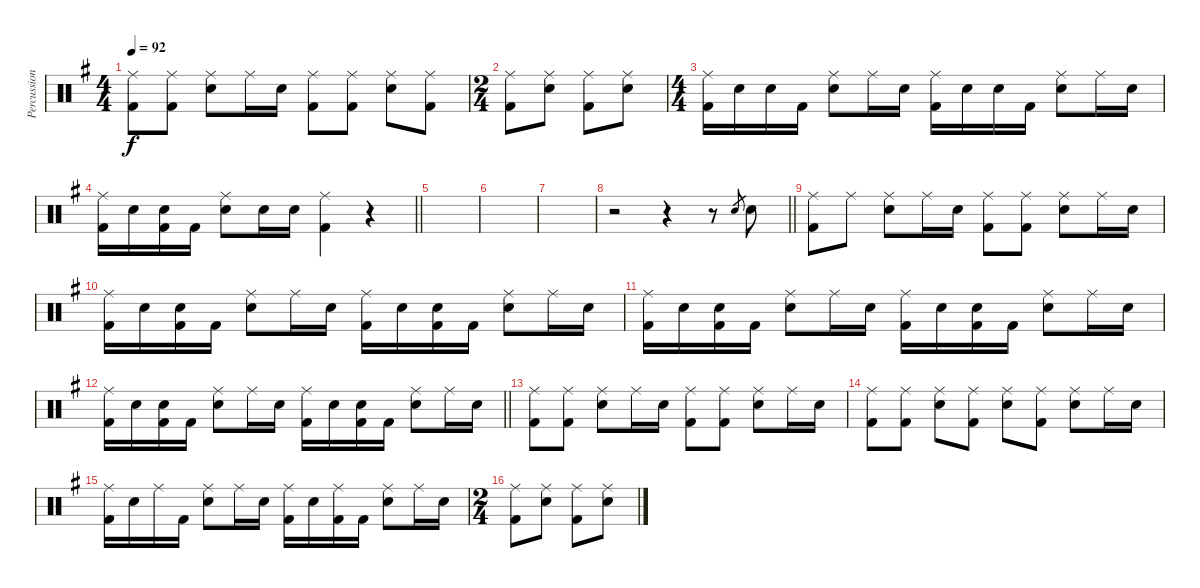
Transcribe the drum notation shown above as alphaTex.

\track ("Percussion" "Percussion") {instrument percussion}
\staff {score}
\articulation defaults
\ts (4 4)
\tempo 92
\clef neutral
\ks g
("Ride (middle)" "Kick (hit) 2").8{dy f} ("Ride (middle)" "Kick (hit) 2").8 ("Ride (middle)" "Snare (hit) 2").8 "Ride (middle)".16 "Snare (hit) 2".16 ("Ride (middle)" "Kick (hit) 2").8 ("Ride (middle)" "Kick (hit) 2").8 ("Ride (middle)" "Snare (hit) 2").8 ("Ride (middle)" "Kick (hit) 2").8 |
\ts (2 4)
("Ride (middle)" "Kick (hit) 2").8 ("Ride (middle)" "Snare (hit) 2").8 ("Ride (middle)" "Kick (hit) 2").8 ("Ride (middle)" "Snare (hit) 2").8 |
\ts (4 4)
("Ride (middle)" "Kick (hit) 2").16 "Snare (hit) 2".16 "Snare (hit) 2".16 "Kick (hit) 2".16 ("Ride (middle)" "Snare (hit) 2").8 "Ride (middle)".16 "Snare (hit) 2".16 ("Ride (middle)" "Kick (hit) 2").16 "Snare (hit) 2".16 "Snare (hit) 2".16 "Kick (hit) 2".16 ("Ride (middle)" "Snare (hit) 2").8 "Ride (middle)".16 "Snare (hit) 2".16 |
\barLineRight lightlight
("Ride (middle)" "Kick (hit) 2").16 "Snare (hit) 2".16 ("Snare (hit) 2" "Kick (hit) 2").16 "Kick (hit) 2".16 ("Ride (middle)" "Snare (hit) 2").8 "Snare (hit) 2".16 "Snare (hit) 2".16 ("Ride (middle)" "Kick (hit) 2").4 r.4 |
|
|
|
\barLineRight lightlight
r.2 r.4 r.8 "Snare (hit) 2".8{gr} "Snare (hit) 2".8 |
("Ride (middle)" "Kick (hit) 2").8 "Ride (middle)".8 ("Ride (middle)" "Snare (hit) 2").8 "Ride (middle)".16 "Snare (hit) 2".16 ("Ride (middle)" "Kick (hit) 2").8 ("Ride (middle)" "Kick (hit) 2").8 ("Ride (middle)" "Snare (hit) 2").8 "Ride (middle)".16 "Snare (hit) 2".16 |
("Ride (middle)" "Kick (hit) 2").16 "Snare (hit) 2".16 ("Snare (hit) 2" "Kick (hit) 2").16 "Kick (hit) 2".16 ("Ride (middle)" "Snare (hit) 2").8 "Ride (middle)".16 "Snare (hit) 2".16 ("Ride (middle)" "Kick (hit) 2").16 "Snare (hit) 2".16 ("Snare (hit) 2" "Kick (hit) 2").16 "Kick (hit) 2".16 ("Ride (middle)" "Snare (hit) 2").8 "Ride (middle)".16 "Snare (hit) 2".16 |
("Ride (middle)" "Kick (hit) 2").16 "Snare (hit) 2".16 ("Snare (hit) 2" "Kick (hit) 2").16 "Kick (hit) 2".16 ("Ride (middle)" "Snare (hit) 2").8 "Ride (middle)".16 "Snare (hit) 2".16 ("Ride (middle)" "Kick (hit) 2").16 "Snare (hit) 2".16 ("Snare (hit) 2" "Kick (hit) 2").16 "Kick (hit) 2".16 ("Ride (middle)" "Snare (hit) 2").8 "Ride (middle)".16 "Snare (hit) 2".16 |
\barLineRight lightlight
("Ride (middle)" "Kick (hit) 2").16 "Snare (hit) 2".16 ("Snare (hit) 2" "Kick (hit) 2").16 "Kick (hit) 2".16 ("Ride (middle)" "Snare (hit) 2").8 "Ride (middle)".16 "Snare (hit) 2".16 ("Ride (middle)" "Kick (hit) 2").16 "Snare (hit) 2".16 ("Snare (hit) 2" "Kick (hit) 2").16 "Kick (hit) 2".16 ("Ride (middle)" "Snare (hit) 2").8 "Ride (middle)".16 "Snare (hit) 2".16 |
("Ride (middle)" "Kick (hit) 2").8 ("Ride (middle)" "Kick (hit) 2").8 ("Ride (middle)" "Snare (hit) 2").8 "Ride (middle)".16 "Snare (hit) 2".16 ("Ride (middle)" "Kick (hit) 2").8 ("Ride (middle)" "Kick (hit) 2").8 ("Ride (middle)" "Snare (hit) 2").8 "Ride (middle)".16 "Snare (hit) 2".16 |
("Ride (middle)" "Kick (hit) 2").8 ("Ride (middle)" "Kick (hit) 2").8 ("Ride (middle)" "Snare (hit) 2").8 ("Ride (middle)" "Kick (hit) 2").8 ("Ride (middle)" "Snare (hit) 2").8 ("Ride (middle)" "Kick (hit) 2").8 ("Ride (middle)" "Snare (hit) 2").8 "Ride (middle)".16 "Snare (hit) 2".16 |
("Ride (middle)" "Kick (hit) 2").16 "Snare (hit) 2".16 "Ride (middle)".16 "Kick (hit) 2".16 ("Ride (middle)" "Snare (hit) 2").8 "Ride (middle)".16 "Snare (hit) 2".16 ("Ride (middle)" "Kick (hit) 2").16 "Snare (hit) 2".16 ("Ride (middle)" "Kick (hit) 2").16 "Kick (hit) 2".16 ("Ride (middle)" "Snare (hit) 2").8 "Ride (middle)".16 "Snare (hit) 2".16 |
\ts (2 4)
("Ride (middle)" "Kick (hit) 2").8 ("Ride (middle)" "Snare (hit) 2").8 ("Ride (middle)" "Kick (hit) 2").8 ("Ride (middle)" "Snare (hit) 2").8
